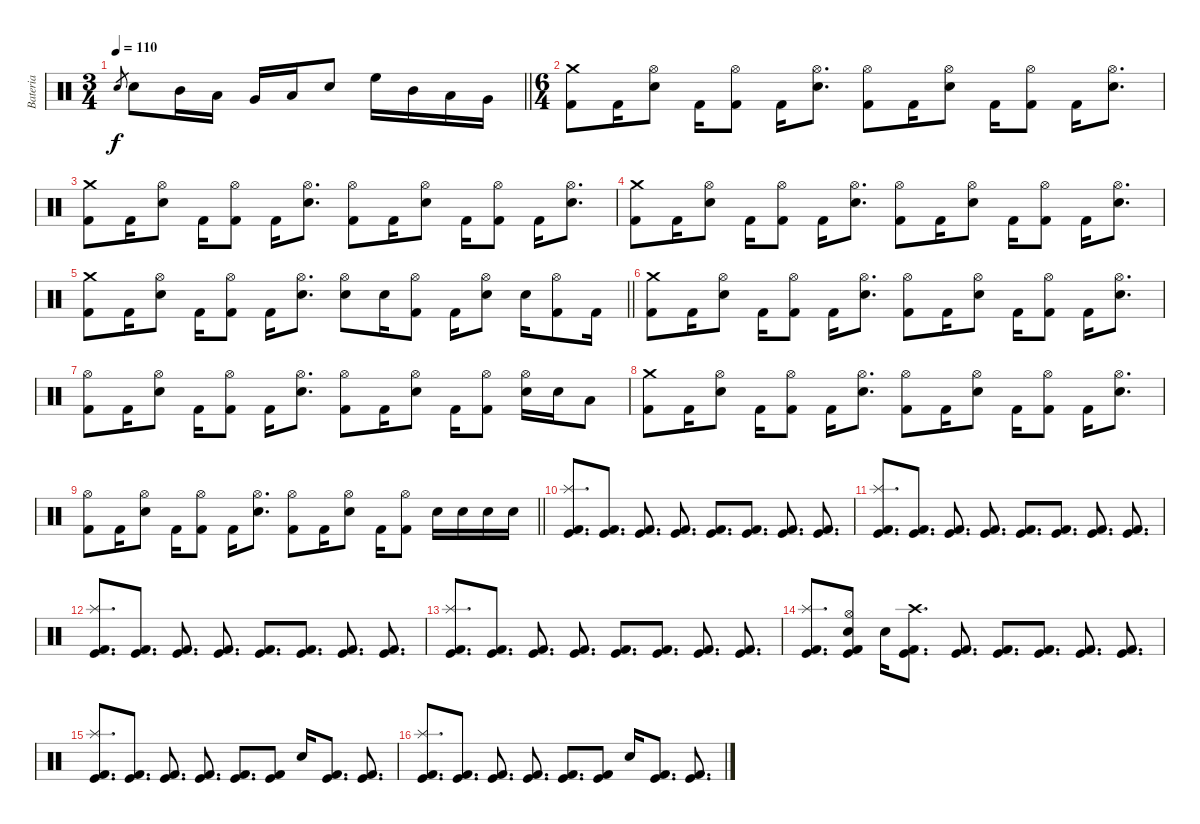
\track ("Bateria" "Bateria") {instrument percussion}
\staff {score}
\articulation defaults
\ts (3 4)
\tempo 110
\clef neutral
\barLineRight lightlight
\ks c "Snare (hit) 2".8{gr dy f} "Snare (hit) 2".8 "Mid Tom (hit)".16 "Low Tom (hit)".16 "Very Low Tom (hit)".16 "Low Floor Tom (hit)".16 "Snare (hit) 2".8 "High Floor Tom (hit)".16 "Mid Tom (hit)".16 "Low Tom (hit)".16 "Very Low Tom (hit)".16
|
\ts (6 4)
("Crash medium (hit)" "Kick (hit) 2").8 "Kick (hit) 2".16 ("Hi-Hat (open)" "Snare (hit) 2").8 "Kick (hit) 2".16 ("Hi-Hat (open)" "Kick (hit) 2").8 "Kick (hit) 2".16 ("Hi-Hat (open)" "Snare (hit) 2").8{d} ("Hi-Hat (open)" "Kick (hit) 2").8 "Kick (hit) 2".16 ("Hi-Hat (open)" "Snare (hit) 2").8 "Kick (hit) 2".16 ("Hi-Hat (open)" "Kick (hit) 2").8 "Kick (hit) 2".16 ("Hi-Hat (open)" "Snare (hit) 2").8{d} |
("Crash medium (hit)" "Kick (hit) 2").8 "Kick (hit) 2".16 ("Hi-Hat (open)" "Snare (hit) 2").8 "Kick (hit) 2".16 ("Hi-Hat (open)" "Kick (hit) 2").8 "Kick (hit) 2".16 ("Hi-Hat (open)" "Snare (hit) 2").8{d} ("Hi-Hat (open)" "Kick (hit) 2").8 "Kick (hit) 2".16 ("Hi-Hat (open)" "Snare (hit) 2").8 "Kick (hit) 2".16 ("Hi-Hat (open)" "Kick (hit) 2").8 "Kick (hit) 2".16 ("Hi-Hat (open)" "Snare (hit) 2").8{d} |
("Crash medium (hit)" "Kick (hit) 2").8 "Kick (hit) 2".16 ("Hi-Hat (open)" "Snare (hit) 2").8 "Kick (hit) 2".16 ("Hi-Hat (open)" "Kick (hit) 2").8 "Kick (hit) 2".16 ("Hi-Hat (open)" "Snare (hit) 2").8{d} ("Hi-Hat (open)" "Kick (hit) 2").8 "Kick (hit) 2".16 ("Hi-Hat (open)" "Snare (hit) 2").8 "Kick (hit) 2".16 ("Hi-Hat (open)" "Kick (hit) 2").8 "Kick (hit) 2".16 ("Hi-Hat (open)" "Snare (hit) 2").8{d} |
\barLineRight lightlight
("Crash medium (hit)" "Kick (hit) 2").8 "Kick (hit) 2".16 ("Hi-Hat (open)" "Snare (hit) 2").8 "Kick (hit) 2".16 ("Hi-Hat (open)" "Kick (hit) 2").8 "Kick (hit) 2".16 ("Hi-Hat (open)" "Snare (hit) 2").8{d} ("Hi-Hat (open)" "Snare (hit) 2").8 "Snare (hit) 2".16 ("Hi-Hat (open)" "Kick (hit) 2").8 "Kick (hit) 2".16 ("Hi-Hat (open)" "Snare (hit) 2").8 "Snare (hit) 2".16 ("Hi-Hat (open)" "Kick (hit) 2").8 "Kick (hit) 2".16 |
("Crash medium (hit)" "Kick (hit) 2").8 "Kick (hit) 2".16 ("Hi-Hat (open)" "Snare (hit) 2").8 "Kick (hit) 2".16 ("Hi-Hat (open)" "Kick (hit) 2").8 "Kick (hit) 2".16 ("Hi-Hat (open)" "Snare (hit) 2").8{d} ("Hi-Hat (open)" "Kick (hit) 2").8 "Kick (hit) 2".16 ("Hi-Hat (open)" "Snare (hit) 2").8 "Kick (hit) 2".16 ("Hi-Hat (open)" "Kick (hit) 2").8 "Kick (hit) 2".16 ("Hi-Hat (open)" "Snare (hit) 2").8{d} |
("Hi-Hat (open)" "Kick (hit) 2").8 "Kick (hit) 2".16 ("Hi-Hat (open)" "Snare (hit) 2").8 "Kick (hit) 2".16 ("Hi-Hat (open)" "Kick (hit) 2").8 "Kick (hit) 2".16 ("Hi-Hat (open)" "Snare (hit) 2").8{d} ("Hi-Hat (open)" "Kick (hit) 2").8 "Kick (hit) 2".16 ("Hi-Hat (open)" "Snare (hit) 2").8 "Kick (hit) 2".16 ("Hi-Hat (open)" "Kick (hit) 2").8 ("Hi-Hat (open)" "Snare (hit) 2").16 "Snare (hit) 2".16 "Low Tom (hit)".8 |
("Crash medium (hit)" "Kick (hit) 2").8 "Kick (hit) 2".16 ("Hi-Hat (open)" "Snare (hit) 2").8 "Kick (hit) 2".16 ("Hi-Hat (open)" "Kick (hit) 2").8 "Kick (hit) 2".16 ("Hi-Hat (open)" "Snare (hit) 2").8{d} ("Hi-Hat (open)" "Kick (hit) 2").8 "Kick (hit) 2".16 ("Hi-Hat (open)" "Snare (hit) 2").8 "Kick (hit) 2".16 ("Hi-Hat (open)" "Kick (hit) 2").8 "Kick (hit) 2".16 ("Hi-Hat (open)" "Snare (hit) 2").8{d} |
\barLineRight lightlight
("Hi-Hat (open)" "Kick (hit) 2").8 "Kick (hit) 2".16 ("Hi-Hat (open)" "Snare (hit) 2").8 "Kick (hit) 2".16 ("Hi-Hat (open)" "Kick (hit) 2").8 "Kick (hit) 2".16 ("Hi-Hat (open)" "Snare (hit) 2").8{d} ("Hi-Hat (open)" "Kick (hit) 2").8 "Kick (hit) 2".16 ("Hi-Hat (open)" "Snare (hit) 2").8 "Kick (hit) 2".16 ("Hi-Hat (open)" "Kick (hit) 2").8 "Snare (hit) 2".16 "Snare (hit) 2".16 "Snare (hit) 2".16 "Snare (hit) 2".16 |
("Splash (hit)" "Kick (hit)" "Kick (hit) 2").8{d} ("Kick (hit)" "Kick (hit) 2").8{d} ("Kick (hit)" "Kick (hit) 2").8{d} ("Kick (hit)" "Kick (hit) 2").8{d} ("Kick (hit)" "Kick (hit) 2").8{d} ("Kick (hit)" "Kick (hit) 2").8{d} ("Kick (hit)" "Kick (hit) 2").8{d} ("Kick (hit)" "Kick (hit) 2").8{d} |
("Splash (hit)" "Kick (hit)" "Kick (hit) 2").8{d} ("Kick (hit)" "Kick (hit) 2").8{d} ("Kick (hit)" "Kick (hit) 2").8{d} ("Kick (hit)" "Kick (hit) 2").8{d} ("Kick (hit)" "Kick (hit) 2").8{d} ("Kick (hit)" "Kick (hit) 2").8{d} ("Kick (hit)" "Kick (hit) 2").8{d} ("Kick (hit)" "Kick (hit) 2").8{d} |
("Splash (hit)" "Kick (hit)" "Kick (hit) 2").8{d} ("Kick (hit)" "Kick (hit) 2").8{d} ("Kick (hit)" "Kick (hit) 2").8{d} ("Kick (hit)" "Kick (hit) 2").8{d} ("Kick (hit)" "Kick (hit) 2").8{d} ("Kick (hit)" "Kick (hit) 2").8{d} ("Kick (hit)" "Kick (hit) 2").8{d} ("Kick (hit)" "Kick (hit) 2").8{d} |
("Splash (hit)" "Kick (hit)" "Kick (hit) 2").8{d} ("Kick (hit)" "Kick (hit) 2").8{d} ("Kick (hit)" "Kick (hit) 2").8{d} ("Kick (hit)" "Kick (hit) 2").8{d} ("Kick (hit)" "Kick (hit) 2").8{d} ("Kick (hit)" "Kick (hit) 2").8{d} ("Kick (hit)" "Kick (hit) 2").8{d} ("Kick (hit)" "Kick (hit) 2").8{d} |
("Splash (hit)" "Kick (hit)" "Kick (hit) 2").8{d} ("Snare (hit) 2" "Hi-Hat (open)" "Kick (hit)" "Kick (hit) 2").8 "Snare (hit) 2".16 ("Crash high (hit)" "Kick (hit)" "Kick (hit) 2").8{d} ("Kick (hit)" "Kick (hit) 2").8{d} ("Kick (hit)" "Kick (hit) 2").8{d} ("Kick (hit)" "Kick (hit) 2").8{d} ("Kick (hit)" "Kick (hit) 2").8{d} ("Kick (hit)" "Kick (hit) 2").8{d} |
("Splash (hit)" "Kick (hit)" "Kick (hit) 2").8{d} ("Kick (hit)" "Kick (hit) 2").8{d} ("Kick (hit)" "Kick (hit) 2").8{d} ("Kick (hit)" "Kick (hit) 2").8{d} ("Kick (hit)" "Kick (hit) 2").8{d} ("Kick (hit)" "Kick (hit) 2").8 "Snare (hit) 2".16 ("Kick (hit)" "Kick (hit) 2").8{d} ("Kick (hit)" "Kick (hit) 2").8{d} |
("Splash (hit)" "Kick (hit)" "Kick (hit) 2").8{d} ("Kick (hit)" "Kick (hit) 2").8{d} ("Kick (hit)" "Kick (hit) 2").8{d} ("Kick (hit)" "Kick (hit) 2").8{d} ("Kick (hit)" "Kick (hit) 2").8{d} ("Kick (hit)" "Kick (hit) 2").8 "Snare (hit) 2".16 ("Kick (hit)" "Kick (hit) 2").8{d} ("Kick (hit)" "Kick (hit) 2").8{d}
